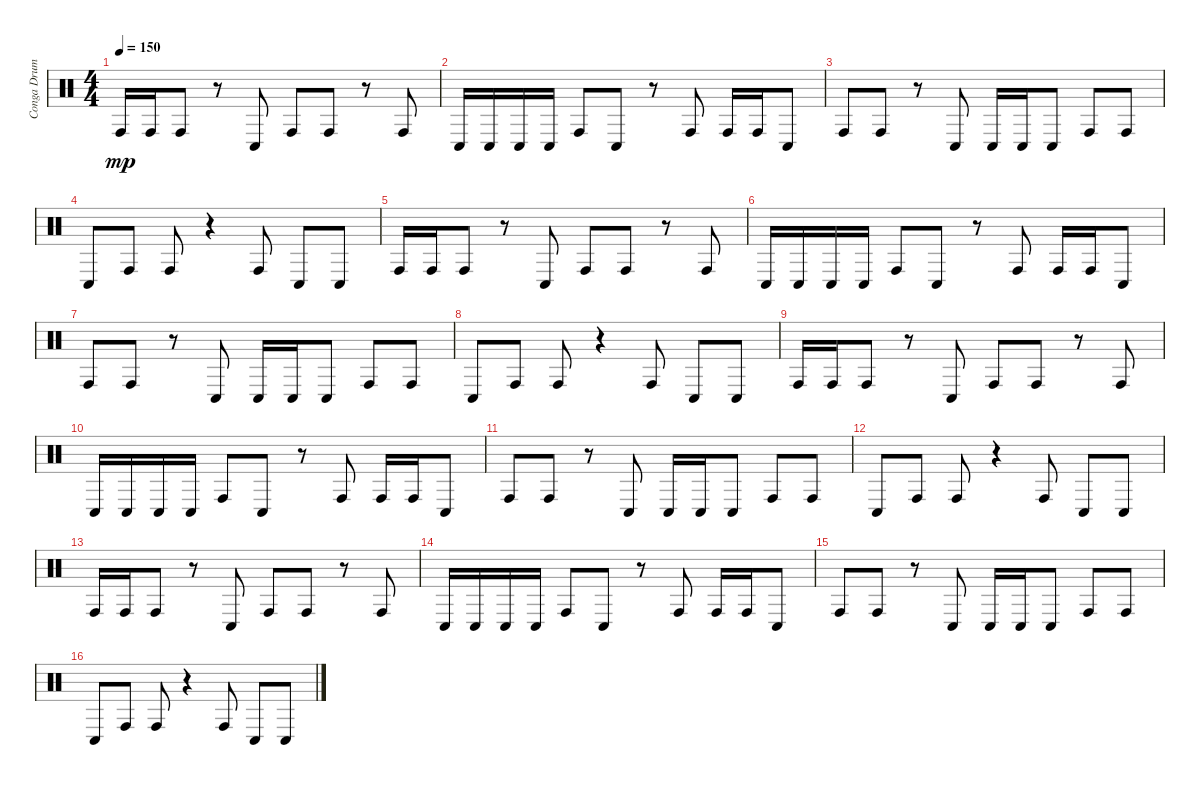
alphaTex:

\track ("Conga Drum" "Conga Drum") {instrument percussion}
\staff {score}
\articulation defaults
\ts (4 4)
\tempo 150
\clef neutral
\ks c "Conga high (hit)".16{dy mp} "Conga high (hit)".16 "Conga high (hit)".8
r.8 "Conga low (hit)".8 "Conga high (hit)".8 "Conga high (hit)".8 r.8 "Conga high (hit)".8 |
"Conga low (hit)".16 "Conga low (hit)".16 "Conga low (hit)".16 "Conga low (hit)".16 "Conga high (hit)".8 "Conga low (hit)".8 r.8 "Conga high (hit)".8 "Conga high (hit)".16 "Conga high (hit)".16 "Conga low (hit)".8 |
"Conga high (hit)".8 "Conga high (hit)".8 r.8 "Conga low (hit)".8 "Conga low (hit)".16 "Conga low (hit)".16 "Conga low (hit)".8 "Conga high (hit)".8 "Conga high (hit)".8 |
"Conga low (hit)".8 "Conga high (hit)".8 "Conga high (hit)".8 r.4 "Conga high (hit)".8 "Conga low (hit)".8 "Conga low (hit)".8 |
"Conga high (hit)".16 "Conga high (hit)".16 "Conga high (hit)".8 r.8 "Conga low (hit)".8 "Conga high (hit)".8 "Conga high (hit)".8 r.8 "Conga high (hit)".8 |
"Conga low (hit)".16 "Conga low (hit)".16 "Conga low (hit)".16 "Conga low (hit)".16 "Conga high (hit)".8 "Conga low (hit)".8 r.8 "Conga high (hit)".8 "Conga high (hit)".16 "Conga high (hit)".16 "Conga low (hit)".8 |
"Conga high (hit)".8 "Conga high (hit)".8 r.8 "Conga low (hit)".8 "Conga low (hit)".16 "Conga low (hit)".16 "Conga low (hit)".8 "Conga high (hit)".8 "Conga high (hit)".8 |
"Conga low (hit)".8 "Conga high (hit)".8 "Conga high (hit)".8 r.4 "Conga high (hit)".8 "Conga low (hit)".8 "Conga low (hit)".8 |
"Conga high (hit)".16 "Conga high (hit)".16 "Conga high (hit)".8 r.8 "Conga low (hit)".8 "Conga high (hit)".8 "Conga high (hit)".8 r.8 "Conga high (hit)".8 |
"Conga low (hit)".16 "Conga low (hit)".16 "Conga low (hit)".16 "Conga low (hit)".16 "Conga high (hit)".8 "Conga low (hit)".8 r.8 "Conga high (hit)".8 "Conga high (hit)".16 "Conga high (hit)".16 "Conga low (hit)".8 |
"Conga high (hit)".8 "Conga high (hit)".8 r.8 "Conga low (hit)".8 "Conga low (hit)".16 "Conga low (hit)".16 "Conga low (hit)".8 "Conga high (hit)".8 "Conga high (hit)".8 |
"Conga low (hit)".8 "Conga high (hit)".8 "Conga high (hit)".8 r.4 "Conga high (hit)".8 "Conga low (hit)".8 "Conga low (hit)".8 |
"Conga high (hit)".16 "Conga high (hit)".16 "Conga high (hit)".8 r.8 "Conga low (hit)".8 "Conga high (hit)".8 "Conga high (hit)".8 r.8 "Conga high (hit)".8 |
"Conga low (hit)".16 "Conga low (hit)".16 "Conga low (hit)".16 "Conga low (hit)".16 "Conga high (hit)".8 "Conga low (hit)".8 r.8 "Conga high (hit)".8 "Conga high (hit)".16 "Conga high (hit)".16 "Conga low (hit)".8 |
"Conga high (hit)".8 "Conga high (hit)".8 r.8 "Conga low (hit)".8 "Conga low (hit)".16 "Conga low (hit)".16 "Conga low (hit)".8 "Conga high (hit)".8 "Conga high (hit)".8 |
"Conga low (hit)".8 "Conga high (hit)".8 "Conga high (hit)".8 r.4 "Conga high (hit)".8 "Conga low (hit)".8 "Conga low (hit)".8
